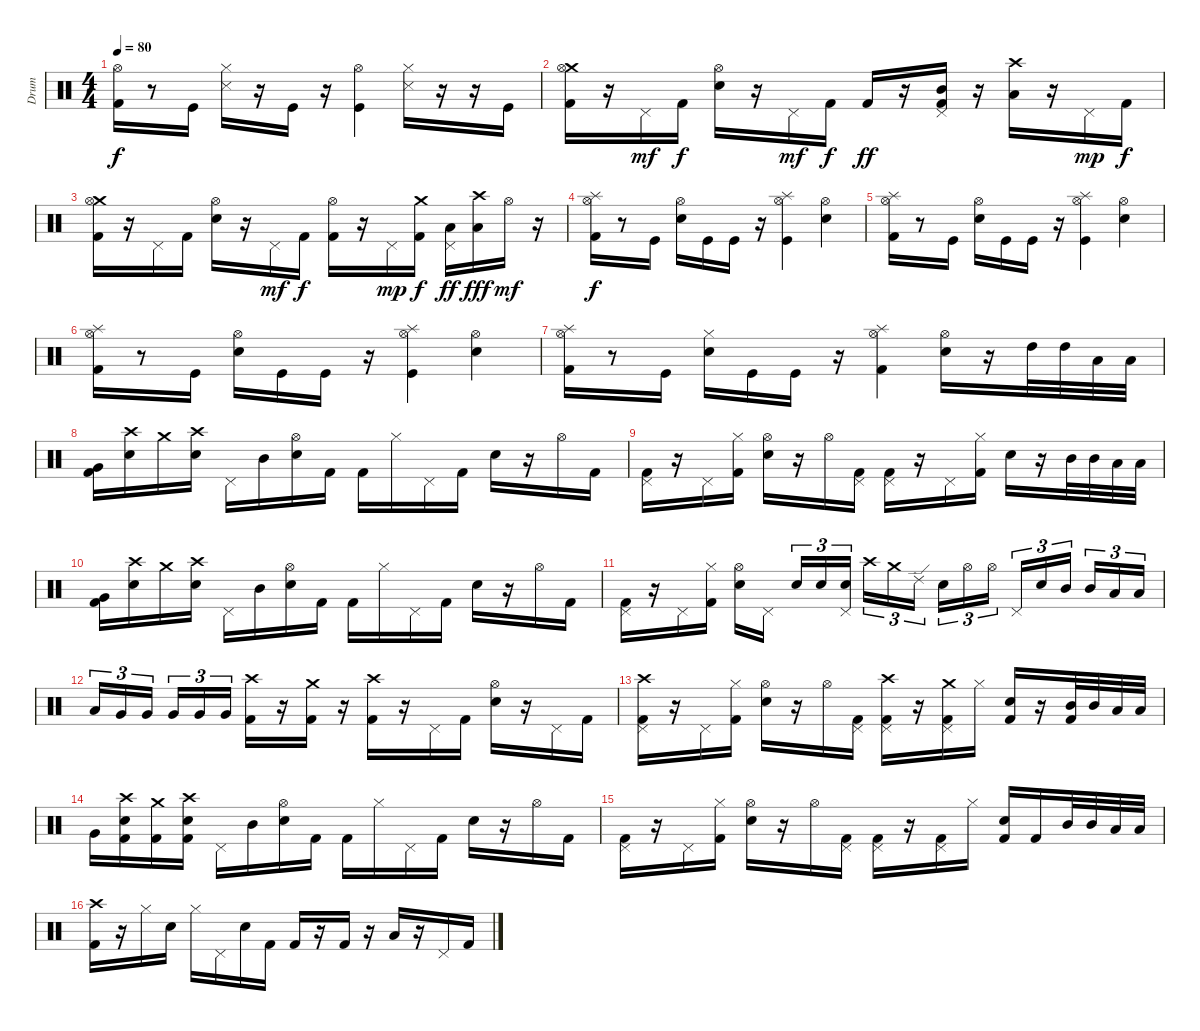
\track ("Drum" "Drum") {instrument percussion}
\staff {score}
\articulation defaults
\ts (4 4)
\tempo 80
\clef neutral
\ks c
("Hi-Hat (open)" "Kick (hit) 2").16{dy f} r.8 "Kick (hit)".16 ("Hi-Hat (closed)" "Snare (side stick) 3").16 r.16 "Kick (hit)".16 r.16 ("Hi-Hat (open)" "Kick (hit)").4 ("Hi-Hat (closed)" "Snare (side stick) 3").16 r.16 r.16 "Kick (hit)".16 |
("Crash medium (hit)" "Hi-Hat (open)" "Kick (hit) 2").16 r.16 "Pedal Hi-Hat (hit)".16{dy mf} "Kick (hit) 2".16{dy f} ("Hi-Hat (open)" "Snare (hit) 2").16 r.16 "Pedal Hi-Hat (hit)".16{dy mf} "Kick (hit) 2".16{dy f} "Kick (hit) 2".16{dy ff} r.16 ("Pedal Hi-Hat (hit)" "Mid Tom (hit)" "Kick (hit) 2").16 r.16 ("Crash high (hit)" "Low Tom (hit)").16 r.16 "Pedal Hi-Hat (hit)".16{dy mp} "Kick (hit) 2".16{dy f} |
("Crash medium (hit)" "Hi-Hat (open)" "Kick (hit) 2").16 r.16 "Pedal Hi-Hat (hit)".16 "Kick (hit) 2".16 ("Hi-Hat (open)" "Snare (hit) 2").16 r.16 "Pedal Hi-Hat (hit)".16{dy mf} "Kick (hit) 2".16{dy f} ("Hi-Hat (open)" "Kick (hit) 2").16 r.16 "Pedal Hi-Hat (hit)".16{dy mp} ("Crash medium (hit)" "Kick (hit) 2").16{dy f} ("Low Tom (hit)" "Pedal Hi-Hat (hit)").16{dy ff} ("Crash high (hit)" "Low Tom (hit)").16{dy fff} "Hi-Hat (open)".16{dy mf} r.16 |
("Splash (hit)" "Hi-Hat (open)" "Kick (hit) 2").16{dy f} r.8 "Kick (hit)".16 ("Hi-Hat (open)" "Snare (hit) 2").16 "Kick (hit)".16 "Kick (hit)".16 r.16 ("Splash (hit)" "Hi-Hat (open)" "Kick (hit)").4 ("Hi-Hat (open)" "Snare (hit) 2").4 |
("Splash (hit)" "Hi-Hat (open)" "Kick (hit) 2").16 r.8 "Kick (hit)".16 ("Hi-Hat (open)" "Snare (hit) 2").16 "Kick (hit)".16 "Kick (hit)".16 r.16 ("Splash (hit)" "Hi-Hat (open)" "Kick (hit)").4 ("Hi-Hat (open)" "Snare (hit) 2").4 |
("Splash (hit)" "Hi-Hat (open)" "Kick (hit) 2").16 r.8 "Kick (hit)".16 ("Hi-Hat (open)" "Snare (hit) 2").16 "Kick (hit)".16 "Kick (hit)".16 r.16 ("Splash (hit)" "Hi-Hat (open)" "Kick (hit)").4 ("Hi-Hat (open)" "Snare (hit) 2").4 |
("Splash (hit)" "Hi-Hat (open)" "Kick (hit) 2").16 r.8 "Kick (hit)".16 ("Hi-Hat (closed)" "Snare (hit) 2").16 "Kick (hit)".16 "Kick (hit)".16 r.16 ("Splash (hit)" "Hi-Hat (open)" "Kick (hit) 2").4 ("Hi-Hat (open)" "Snare (hit) 2").16 r.16 "High Tom (hit)".32 "High Tom (hit)".32 "Low Tom (hit)".32 "Low Tom (hit)".32 |
("Very Low Tom (hit)" "Kick (hit) 2").16 ("Crash high (hit)" "Electric Snare (hit)").16 "Crash medium (hit)".16 ("Crash high (hit)" "Electric Snare (hit)").16 "Pedal Hi-Hat (hit)".16 "Mid Tom (hit)".16 ("Hi-Hat (open)" "Electric Snare (hit)").16 "Kick (hit) 2".16 "Kick (hit) 2".16 "Hi-Hat (closed)".16 "Pedal Hi-Hat (hit)".16 "Kick (hit) 2".16 "Electric Snare (hit)".16 r.16 "Hi-Hat (open)".16 "Kick (hit) 2".16 |
("Pedal Hi-Hat (hit)" "Kick (hit) 2").16 r.16 "Pedal Hi-Hat (hit)".16 ("Hi-Hat (closed)" "Kick (hit) 2").16 ("Hi-Hat (open)" "Electric Snare (hit)").16 r.16 "Hi-Hat (open)".16 ("Pedal Hi-Hat (hit)" "Kick (hit) 2").16 ("Pedal Hi-Hat (hit)" "Kick (hit) 2").16 r.16 "Pedal Hi-Hat (hit)".16 ("Hi-Hat (closed)" "Kick (hit) 2").16 "Electric Snare (hit)".16 r.16 "Mid Tom (hit)".32 "Mid Tom (hit)".32 "Low Tom (hit)".32 "Low Tom (hit)".32 |
("Very Low Tom (hit)" "Kick (hit) 2").16 ("Crash high (hit)" "Electric Snare (hit)").16 "Crash medium (hit)".16 ("Crash high (hit)" "Electric Snare (hit)").16 "Pedal Hi-Hat (hit)".16 "Mid Tom (hit)".16 ("Hi-Hat (open)" "Electric Snare (hit)").16 "Kick (hit) 2".16 "Kick (hit) 2".16 "Hi-Hat (closed)".16 "Pedal Hi-Hat (hit)".16 "Kick (hit) 2".16 "Electric Snare (hit)".16 r.16 "Hi-Hat (open)".16 "Kick (hit) 2".16 |
("Pedal Hi-Hat (hit)" "Kick (hit) 2").16 r.16 "Pedal Hi-Hat (hit)".16 ("Hi-Hat (closed)" "Kick (hit) 2").16 ("Hi-Hat (open)" "Electric Snare (hit)").16 "Pedal Hi-Hat (hit)".16 "Snare (hit) 2".16{tu (3 2)} "Snare (hit) 2".16{tu (3 2)} ("Snare (hit) 2" "Pedal Hi-Hat (hit)").16{tu (3 2)} "Crash high (hit)".16{tu (3 2)} "Crash medium (hit)".16{tu (3 2)} "Ride (edge) 2".16{tu (3 2)} "Electric Snare (hit)".16{tu (3 2)} "Hi-Hat (open)".16{tu (3 2)} "Hi-Hat (open)".16{tu (3 2)} "Pedal Hi-Hat (hit)".16{tu (3 2)} "Electric Snare (hit)".16{tu (3 2)} "Mid Tom (hit)".16{tu (3 2)} "Mid Tom (hit)".16{tu (3 2)} "Low Tom (hit)".16{tu (3 2)} "Low Tom (hit)".16{tu (3 2)} |
"Low Tom (hit)".16{tu (3 2)} "Very Low Tom (hit)".16{tu (3 2)} "Very Low Tom (hit)".16{tu (3 2)} "Very Low Tom (hit)".16{tu (3 2)} "Very Low Tom (hit)".16{tu (3 2)} "Very Low Tom (hit)".16{tu (3 2)} ("Crash high (hit)" "Kick (hit) 2").16 r.16 ("Crash medium (hit)" "Kick (hit) 2").16 r.16 ("Crash high (hit)" "Kick (hit) 2").16 r.16 "Pedal Hi-Hat (hit)".16 "Kick (hit) 2".16 ("Hi-Hat (open)" "Electric Snare (hit)").16 r.16 "Pedal Hi-Hat (hit)".16 "Kick (hit) 2".16 |
("Crash high (hit)" "Pedal Hi-Hat (hit)" "Kick (hit) 2").16 r.16 "Pedal Hi-Hat (hit)".16 ("Hi-Hat (closed)" "Kick (hit) 2").16 ("Hi-Hat (open)" "Electric Snare (hit)").16 r.16 "Hi-Hat (open)".16 ("Pedal Hi-Hat (hit)" "Kick (hit) 2").16 ("Crash high (hit)" "Pedal Hi-Hat (hit)" "Kick (hit) 2").16 r.16 ("Crash medium (hit)" "Pedal Hi-Hat (hit)" "Kick (hit) 2").16 "Hi-Hat (closed)".16 ("Electric Snare (hit)" "Kick (hit) 2").16 r.16 ("Mid Tom (hit)" "Kick (hit) 2").32 "Mid Tom (hit)".32 "Low Tom (hit)".32 "Low Tom (hit)".32 |
"Very Low Tom (hit)".16 ("Crash high (hit)" "Electric Snare (hit)" "Kick (hit) 2").16 ("Crash medium (hit)" "Kick (hit) 2").16 ("Crash high (hit)" "Electric Snare (hit)" "Kick (hit) 2").16 "Pedal Hi-Hat (hit)".16 "Mid Tom (hit)".16 ("Hi-Hat (open)" "Electric Snare (hit)").16 "Kick (hit) 2".16 "Kick (hit) 2".16 "Hi-Hat (closed)".16 "Pedal Hi-Hat (hit)".16 "Kick (hit) 2".16 "Electric Snare (hit)".16 r.16 "Hi-Hat (open)".16 "Kick (hit) 2".16 |
("Pedal Hi-Hat (hit)" "Kick (hit) 2").16 r.16 "Pedal Hi-Hat (hit)".16 ("Hi-Hat (closed)" "Kick (hit) 2").16 ("Hi-Hat (open)" "Electric Snare (hit)").16 r.16 "Hi-Hat (open)".16 ("Pedal Hi-Hat (hit)" "Kick (hit) 2").16 ("Pedal Hi-Hat (hit)" "Kick (hit) 2").16 r.16 ("Pedal Hi-Hat (hit)" "Kick (hit) 2").16 "Hi-Hat (closed)".16 ("Electric Snare (hit)" "Kick (hit) 2").16 "Kick (hit) 2".16 "Mid Tom (hit)".32 "Mid Tom (hit)".32 "Low Tom (hit)".32 "Low Tom (hit)".32 |
("Crash high (hit)" "Kick (hit) 2").16 r.16 "Hi-Hat (closed)".16 "Snare (hit) 2".16 "Hi-Hat (closed)".16 "Pedal Hi-Hat (hit)".16 "Snare (hit) 2".16 "Kick (hit) 2".16 "Kick (hit) 2".16 r.16 "Kick (hit) 2".16 r.16 "Low Floor Tom (hit)".16 r.16 "Pedal Hi-Hat (hit)".16 "Kick (hit) 2".16
